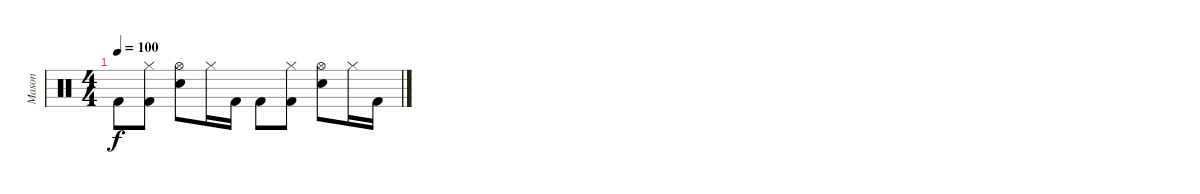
\track ("Mason" "Mason") {instrument percussion}
\staff {score}
\articulation defaults
\ts (4 4)
\tempo 100
\clef neutral
\ks c "Kick (hit) 2".8{dy f}
("Hi-Hat (closed)" "Kick (hit) 2").8 ("Hand Clap (hit)" "Hi-Hat (open)").8 "Hi-Hat (closed)".16 "Kick (hit) 2".16 "Kick (hit) 2".8 ("Hi-Hat (closed)" "Kick (hit) 2").8 ("Hand Clap (hit)" "Hi-Hat (open)").8 "Hi-Hat (closed)".16 "Kick (hit) 2".16
